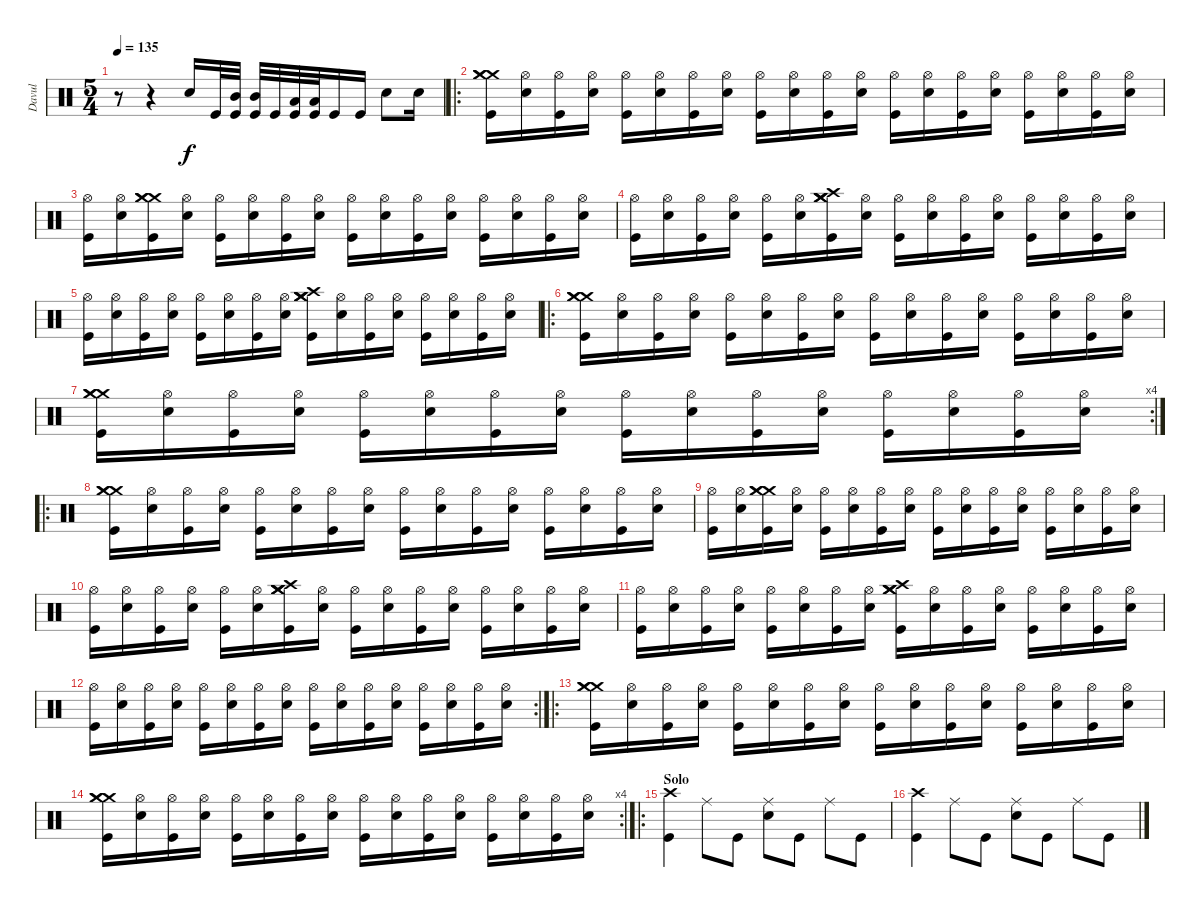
\track ("Davul" "Davul") {instrument percussion}
\staff {score}
\articulation defaults
\ts (5 4)
\tempo 135
\clef neutral
\ks c
r.8{dy f} r.4 "Electric Snare (hit)".16 "Kick (hit)".32 ("Mid Tom (hit)" "Kick (hit)").32 ("Mid Tom (hit)" "Kick (hit)").32 "Kick (hit)".32 ("Low Tom (hit)" "Kick (hit)").32 ("Low Tom (hit)" "Kick (hit)").32 "Kick (hit)".16 "Kick (hit)".16 "Electric Snare (hit)".8 "Electric Snare (hit)".16 |
\ro
("Crash medium (hit)" "Crash medium (hit)" "Crash medium (hit)" "Kick (hit)").16 ("Hi-Hat (open)" "Electric Snare (hit)").16 ("Hi-Hat (open)" "Kick (hit)").16 ("Hi-Hat (open)" "Electric Snare (hit)").16 ("Hi-Hat (open)" "Kick (hit)").16 ("Hi-Hat (open)" "Electric Snare (hit)").16 ("Hi-Hat (open)" "Kick (hit)").16 ("Hi-Hat (open)" "Electric Snare (hit)").16 ("Hi-Hat (open)" "Kick (hit)").16 ("Hi-Hat (open)" "Electric Snare (hit)").16 ("Hi-Hat (open)" "Kick (hit)").16 ("Hi-Hat (open)" "Electric Snare (hit)").16 ("Hi-Hat (open)" "Kick (hit)").16 ("Hi-Hat (open)" "Electric Snare (hit)").16 ("Hi-Hat (open)" "Kick (hit)").16 ("Hi-Hat (open)" "Electric Snare (hit)").16 ("Hi-Hat (open)" "Kick (hit)").16 ("Hi-Hat (open)" "Electric Snare (hit)").16 ("Hi-Hat (open)" "Kick (hit)").16 ("Hi-Hat (open)" "Electric Snare (hit)").16 |
("Hi-Hat (open)" "Kick (hit)").16 ("Hi-Hat (open)" "Electric Snare (hit)").16 ("Crash medium (hit)" "Crash medium (hit)" "Crash medium (hit)" "Kick (hit)").16 ("Hi-Hat (open)" "Electric Snare (hit)").16 ("Hi-Hat (open)" "Kick (hit)").16 ("Hi-Hat (open)" "Electric Snare (hit)").16 ("Hi-Hat (open)" "Kick (hit)").16 ("Hi-Hat (open)" "Electric Snare (hit)").16 ("Hi-Hat (open)" "Kick (hit)").16 ("Hi-Hat (open)" "Electric Snare (hit)").16 ("Hi-Hat (open)" "Kick (hit)").16 ("Hi-Hat (open)" "Electric Snare (hit)").16 ("Hi-Hat (open)" "Kick (hit)").16 ("Hi-Hat (open)" "Electric Snare (hit)").16 ("Hi-Hat (open)" "Kick (hit)").16 ("Hi-Hat (open)" "Electric Snare (hit)").16 |
("Hi-Hat (open)" "Kick (hit)").16 ("Hi-Hat (open)" "Electric Snare (hit)").16 ("Hi-Hat (open)" "Kick (hit)").16 ("Hi-Hat (open)" "Electric Snare (hit)").16 ("Hi-Hat (open)" "Kick (hit)").16 ("Hi-Hat (open)" "Electric Snare (hit)").16 ("Crash medium (hit)" "Crash medium (hit)" "Crash medium (hit)" "Crash high (hit)" "Kick (hit)").16 ("Hi-Hat (open)" "Electric Snare (hit)").16 ("Hi-Hat (open)" "Kick (hit)").16 ("Hi-Hat (open)" "Electric Snare (hit)").16 ("Hi-Hat (open)" "Kick (hit)").16 ("Hi-Hat (open)" "Electric Snare (hit)").16 ("Hi-Hat (open)" "Kick (hit)").16 ("Hi-Hat (open)" "Electric Snare (hit)").16 ("Hi-Hat (open)" "Kick (hit)").16 ("Hi-Hat (open)" "Electric Snare (hit)").16 |
("Hi-Hat (open)" "Kick (hit)").16 ("Hi-Hat (open)" "Electric Snare (hit)").16 ("Hi-Hat (open)" "Kick (hit)").16 ("Hi-Hat (open)" "Electric Snare (hit)").16 ("Hi-Hat (open)" "Kick (hit)").16 ("Hi-Hat (open)" "Electric Snare (hit)").16 ("Hi-Hat (open)" "Kick (hit)").16 ("Hi-Hat (open)" "Electric Snare (hit)").16 ("Crash medium (hit)" "Crash medium (hit)" "Crash medium (hit)" "Crash high (hit)" "Kick (hit)").16 ("Hi-Hat (open)" "Electric Snare (hit)").16 ("Hi-Hat (open)" "Kick (hit)").16 ("Hi-Hat (open)" "Electric Snare (hit)").16 ("Hi-Hat (open)" "Kick (hit)").16 ("Hi-Hat (open)" "Electric Snare (hit)").16 ("Hi-Hat (open)" "Kick (hit)").16 ("Hi-Hat (open)" "Electric Snare (hit)").16 |
\ro
("Crash medium (hit)" "Crash medium (hit)" "Crash medium (hit)" "Kick (hit)").16 ("Hi-Hat (open)" "Electric Snare (hit)").16 ("Hi-Hat (open)" "Kick (hit)").16 ("Hi-Hat (open)" "Electric Snare (hit)").16 ("Hi-Hat (open)" "Kick (hit)").16 ("Hi-Hat (open)" "Electric Snare (hit)").16 ("Hi-Hat (open)" "Kick (hit)").16 ("Hi-Hat (open)" "Electric Snare (hit)").16 ("Hi-Hat (open)" "Kick (hit)").16 ("Hi-Hat (open)" "Electric Snare (hit)").16 ("Hi-Hat (open)" "Kick (hit)").16 ("Hi-Hat (open)" "Electric Snare (hit)").16 ("Hi-Hat (open)" "Kick (hit)").16 ("Hi-Hat (open)" "Electric Snare (hit)").16 ("Hi-Hat (open)" "Kick (hit)").16 ("Hi-Hat (open)" "Electric Snare (hit)").16 |
\rc 4
("Crash medium (hit)" "Crash medium (hit)" "Crash medium (hit)" "Kick (hit)").16 ("Hi-Hat (open)" "Electric Snare (hit)").16 ("Hi-Hat (open)" "Kick (hit)").16 ("Hi-Hat (open)" "Electric Snare (hit)").16 ("Hi-Hat (open)" "Kick (hit)").16 ("Hi-Hat (open)" "Electric Snare (hit)").16 ("Hi-Hat (open)" "Kick (hit)").16 ("Hi-Hat (open)" "Electric Snare (hit)").16 ("Hi-Hat (open)" "Kick (hit)").16 ("Hi-Hat (open)" "Electric Snare (hit)").16 ("Hi-Hat (open)" "Kick (hit)").16 ("Hi-Hat (open)" "Electric Snare (hit)").16 ("Hi-Hat (open)" "Kick (hit)").16 ("Hi-Hat (open)" "Electric Snare (hit)").16 ("Hi-Hat (open)" "Kick (hit)").16 ("Hi-Hat (open)" "Electric Snare (hit)").16 |
\ro
("Crash medium (hit)" "Crash medium (hit)" "Crash medium (hit)" "Kick (hit)").16 ("Hi-Hat (open)" "Electric Snare (hit)").16 ("Hi-Hat (open)" "Kick (hit)").16 ("Hi-Hat (open)" "Electric Snare (hit)").16 ("Hi-Hat (open)" "Kick (hit)").16 ("Hi-Hat (open)" "Electric Snare (hit)").16 ("Hi-Hat (open)" "Kick (hit)").16 ("Hi-Hat (open)" "Electric Snare (hit)").16 ("Hi-Hat (open)" "Kick (hit)").16 ("Hi-Hat (open)" "Electric Snare (hit)").16 ("Hi-Hat (open)" "Kick (hit)").16 ("Hi-Hat (open)" "Electric Snare (hit)").16 ("Hi-Hat (open)" "Kick (hit)").16 ("Hi-Hat (open)" "Electric Snare (hit)").16 ("Hi-Hat (open)" "Kick (hit)").16 ("Hi-Hat (open)" "Electric Snare (hit)").16 |
("Hi-Hat (open)" "Kick (hit)").16 ("Hi-Hat (open)" "Electric Snare (hit)").16 ("Crash medium (hit)" "Crash medium (hit)" "Crash medium (hit)" "Kick (hit)").16 ("Hi-Hat (open)" "Electric Snare (hit)").16 ("Hi-Hat (open)" "Kick (hit)").16 ("Hi-Hat (open)" "Electric Snare (hit)").16 ("Hi-Hat (open)" "Kick (hit)").16 ("Hi-Hat (open)" "Electric Snare (hit)").16 ("Hi-Hat (open)" "Kick (hit)").16 ("Hi-Hat (open)" "Electric Snare (hit)").16 ("Hi-Hat (open)" "Kick (hit)").16 ("Hi-Hat (open)" "Electric Snare (hit)").16 ("Hi-Hat (open)" "Kick (hit)").16 ("Hi-Hat (open)" "Electric Snare (hit)").16 ("Hi-Hat (open)" "Kick (hit)").16 ("Hi-Hat (open)" "Electric Snare (hit)").16 |
("Hi-Hat (open)" "Kick (hit)").16 ("Hi-Hat (open)" "Electric Snare (hit)").16 ("Hi-Hat (open)" "Kick (hit)").16 ("Hi-Hat (open)" "Electric Snare (hit)").16 ("Hi-Hat (open)" "Kick (hit)").16 ("Hi-Hat (open)" "Electric Snare (hit)").16 ("Crash medium (hit)" "Crash medium (hit)" "Crash medium (hit)" "Crash high (hit)" "Kick (hit)").16 ("Hi-Hat (open)" "Electric Snare (hit)").16 ("Hi-Hat (open)" "Kick (hit)").16 ("Hi-Hat (open)" "Electric Snare (hit)").16 ("Hi-Hat (open)" "Kick (hit)").16 ("Hi-Hat (open)" "Electric Snare (hit)").16 ("Hi-Hat (open)" "Kick (hit)").16 ("Hi-Hat (open)" "Electric Snare (hit)").16 ("Hi-Hat (open)" "Kick (hit)").16 ("Hi-Hat (open)" "Electric Snare (hit)").16 |
("Hi-Hat (open)" "Kick (hit)").16 ("Hi-Hat (open)" "Electric Snare (hit)").16 ("Hi-Hat (open)" "Kick (hit)").16 ("Hi-Hat (open)" "Electric Snare (hit)").16 ("Hi-Hat (open)" "Kick (hit)").16 ("Hi-Hat (open)" "Electric Snare (hit)").16 ("Hi-Hat (open)" "Kick (hit)").16 ("Hi-Hat (open)" "Electric Snare (hit)").16 ("Crash medium (hit)" "Crash medium (hit)" "Crash medium (hit)" "Crash high (hit)" "Kick (hit)").16 ("Hi-Hat (open)" "Electric Snare (hit)").16 ("Hi-Hat (open)" "Kick (hit)").16 ("Hi-Hat (open)" "Electric Snare (hit)").16 ("Hi-Hat (open)" "Kick (hit)").16 ("Hi-Hat (open)" "Electric Snare (hit)").16 ("Hi-Hat (open)" "Kick (hit)").16 ("Hi-Hat (open)" "Electric Snare (hit)").16 |
\rc 2
("Hi-Hat (open)" "Kick (hit)").16 ("Hi-Hat (open)" "Electric Snare (hit)").16 ("Hi-Hat (open)" "Kick (hit)").16 ("Hi-Hat (open)" "Electric Snare (hit)").16 ("Hi-Hat (open)" "Kick (hit)").16 ("Hi-Hat (open)" "Electric Snare (hit)").16 ("Hi-Hat (open)" "Kick (hit)").16 ("Hi-Hat (open)" "Electric Snare (hit)").16 ("Hi-Hat (open)" "Kick (hit)").16 ("Hi-Hat (open)" "Electric Snare (hit)").16 ("Hi-Hat (open)" "Kick (hit)").16 ("Hi-Hat (open)" "Electric Snare (hit)").16 ("Hi-Hat (open)" "Kick (hit)").16 ("Hi-Hat (open)" "Electric Snare (hit)").16 ("Hi-Hat (open)" "Kick (hit)").16 ("Hi-Hat (open)" "Electric Snare (hit)").16 |
\ro
("Crash medium (hit)" "Crash medium (hit)" "Crash medium (hit)" "Kick (hit)").16 ("Hi-Hat (open)" "Electric Snare (hit)").16 ("Hi-Hat (open)" "Kick (hit)").16 ("Hi-Hat (open)" "Electric Snare (hit)").16 ("Hi-Hat (open)" "Kick (hit)").16 ("Hi-Hat (open)" "Electric Snare (hit)").16 ("Hi-Hat (open)" "Kick (hit)").16 ("Hi-Hat (open)" "Electric Snare (hit)").16 ("Hi-Hat (open)" "Kick (hit)").16 ("Hi-Hat (open)" "Electric Snare (hit)").16 ("Hi-Hat (open)" "Kick (hit)").16 ("Hi-Hat (open)" "Electric Snare (hit)").16 ("Hi-Hat (open)" "Kick (hit)").16 ("Hi-Hat (open)" "Electric Snare (hit)").16 ("Hi-Hat (open)" "Kick (hit)").16 ("Hi-Hat (open)" "Electric Snare (hit)").16 |
\rc 4
("Crash medium (hit)" "Crash medium (hit)" "Crash medium (hit)" "Kick (hit)").16 ("Hi-Hat (open)" "Electric Snare (hit)").16 ("Hi-Hat (open)" "Kick (hit)").16 ("Hi-Hat (open)" "Electric Snare (hit)").16 ("Hi-Hat (open)" "Kick (hit)").16 ("Hi-Hat (open)" "Electric Snare (hit)").16 ("Hi-Hat (open)" "Kick (hit)").16 ("Hi-Hat (open)" "Electric Snare (hit)").16 ("Hi-Hat (open)" "Kick (hit)").16 ("Hi-Hat (open)" "Electric Snare (hit)").16 ("Hi-Hat (open)" "Kick (hit)").16 ("Hi-Hat (open)" "Electric Snare (hit)").16 ("Hi-Hat (open)" "Kick (hit)").16 ("Hi-Hat (open)" "Electric Snare (hit)").16 ("Hi-Hat (open)" "Kick (hit)").16 ("Hi-Hat (open)" "Electric Snare (hit)").16 |
\ro
\section ("" "Solo")
("Crash high (hit)" "Kick (hit)").4 "Ride (middle)".8 "Kick (hit)".8 ("Ride (middle)" "Electric Snare (hit)").8 "Kick (hit)".8 "Ride (middle)".8 "Kick (hit)".8 |
("Crash high (hit)" "Kick (hit)").4 "Ride (middle)".8 "Kick (hit)".8 ("Ride (middle)" "Electric Snare (hit)").8 "Kick (hit)".8 "Ride (middle)".8 "Kick (hit)".8
